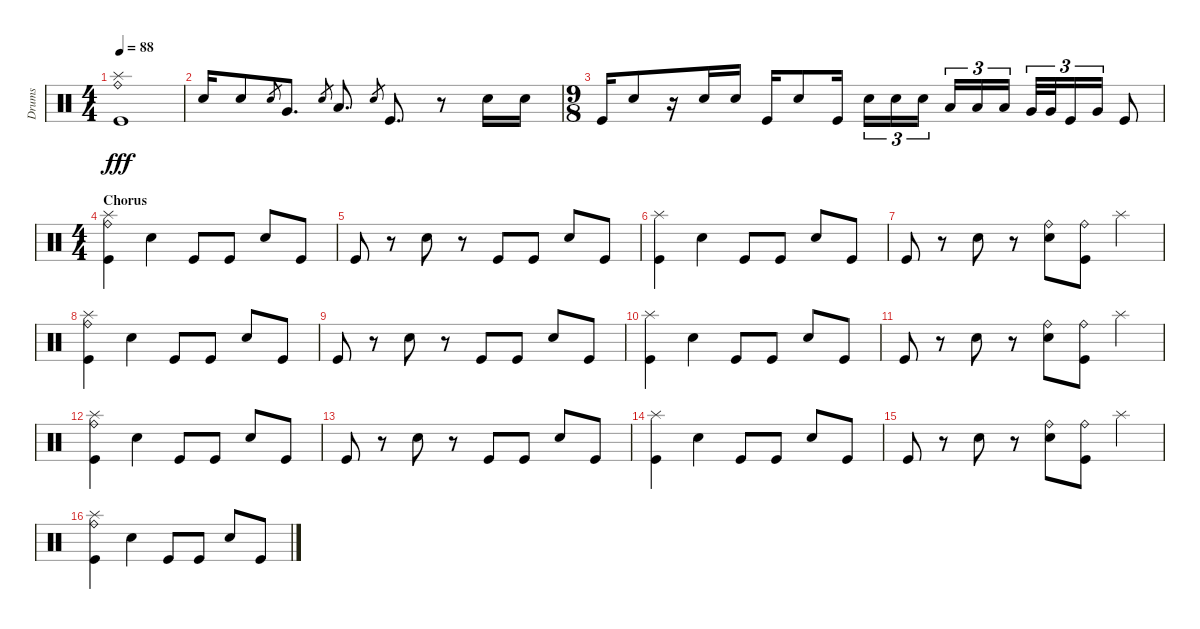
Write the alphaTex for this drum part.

\track ("Drums" "Drums") {instrument percussion}
\staff {score}
\articulation defaults
\ts (4 4)
\tempo 88
\clef neutral
\ks c
("Kick (hit)" "Splash (hit)" "Ride (bell)").1{dy fff} |
"Snare (hit) 2".16 "Snare (hit) 2".8 "Snare (hit)".8{gr} "Very Low Tom (hit)".8{d} "Snare (hit)".8{gr} "Low Floor Tom (hit)".8{d} "Snare (hit)".8{gr} "Kick (hit)".8{d} r.8 "Snare (hit) 2".16 "Snare (hit) 2".16 |
\ts (9 8)
"Kick (hit)".16 "Snare (hit) 2".8 r.16 "Snare (hit) 2".16 "Snare (hit) 2".16 "Kick (hit)".16 "Snare (hit) 2".8 "Kick (hit)".16 "Snare (hit) 2".16{tu (3 2)} "Snare (hit) 2".16{tu (3 2)} "Snare (hit) 2".16{tu (3 2)} "Low Tom (hit)".16{tu (3 2)} "Low Tom (hit)".16{tu (3 2)} "Low Tom (hit)".16{tu (3 2)} "Very Low Tom (hit)".32{tu (3 2)} "Very Low Tom (hit)".32{tu (3 2)} "Kick (hit)".16{tu (3 2)} "Very Low Tom (hit)".16{tu (3 2)} "Kick (hit)".8 |
\ts (4 4)
\section ("" "Chorus")
("Kick (hit)" "Splash (hit)" "Ride (bell)").4 "Snare (hit) 2".4 "Kick (hit)".8 "Kick (hit)".8 "Snare (hit) 2".8 "Kick (hit)".8 |
"Kick (hit)".8 r.8 "Snare (hit) 2".8 r.8 "Kick (hit)".8 "Kick (hit)".8 "Snare (hit) 2".8 "Kick (hit)".8 |
("Kick (hit)" "Splash (hit)").4 "Snare (hit) 2".4 "Kick (hit)".8 "Kick (hit)".8 "Snare (hit) 2".8 "Kick (hit)".8 |
"Kick (hit)".8 r.8 "Snare (hit) 2".8 r.8 ("Snare (hit) 2" "Ride (bell)").8 ("Kick (hit)" "Ride (bell)").8 "Splash (hit)".4 |
("Kick (hit)" "Splash (hit)" "Ride (bell)").4 "Snare (hit) 2".4 "Kick (hit)".8 "Kick (hit)".8 "Snare (hit) 2".8 "Kick (hit)".8 |
"Kick (hit)".8 r.8 "Snare (hit) 2".8 r.8 "Kick (hit)".8 "Kick (hit)".8 "Snare (hit) 2".8 "Kick (hit)".8 |
("Kick (hit)" "Splash (hit)").4 "Snare (hit) 2".4 "Kick (hit)".8 "Kick (hit)".8 "Snare (hit) 2".8 "Kick (hit)".8 |
"Kick (hit)".8 r.8 "Snare (hit) 2".8 r.8 ("Snare (hit) 2" "Ride (bell)").8 ("Kick (hit)" "Ride (bell)").8 "Splash (hit)".4 |
("Kick (hit)" "Splash (hit)" "Ride (bell)").4 "Snare (hit) 2".4 "Kick (hit)".8 "Kick (hit)".8 "Snare (hit) 2".8 "Kick (hit)".8 |
"Kick (hit)".8 r.8 "Snare (hit) 2".8 r.8 "Kick (hit)".8 "Kick (hit)".8 "Snare (hit) 2".8 "Kick (hit)".8 |
("Kick (hit)" "Splash (hit)").4 "Snare (hit) 2".4 "Kick (hit)".8 "Kick (hit)".8 "Snare (hit) 2".8 "Kick (hit)".8 |
"Kick (hit)".8 r.8 "Snare (hit) 2".8 r.8 ("Snare (hit) 2" "Ride (bell)").8 ("Kick (hit)" "Ride (bell)").8 "Splash (hit)".4 |
("Kick (hit)" "Splash (hit)" "Ride (bell)").4 "Snare (hit) 2".4 "Kick (hit)".8 "Kick (hit)".8 "Snare (hit) 2".8 "Kick (hit)".8
